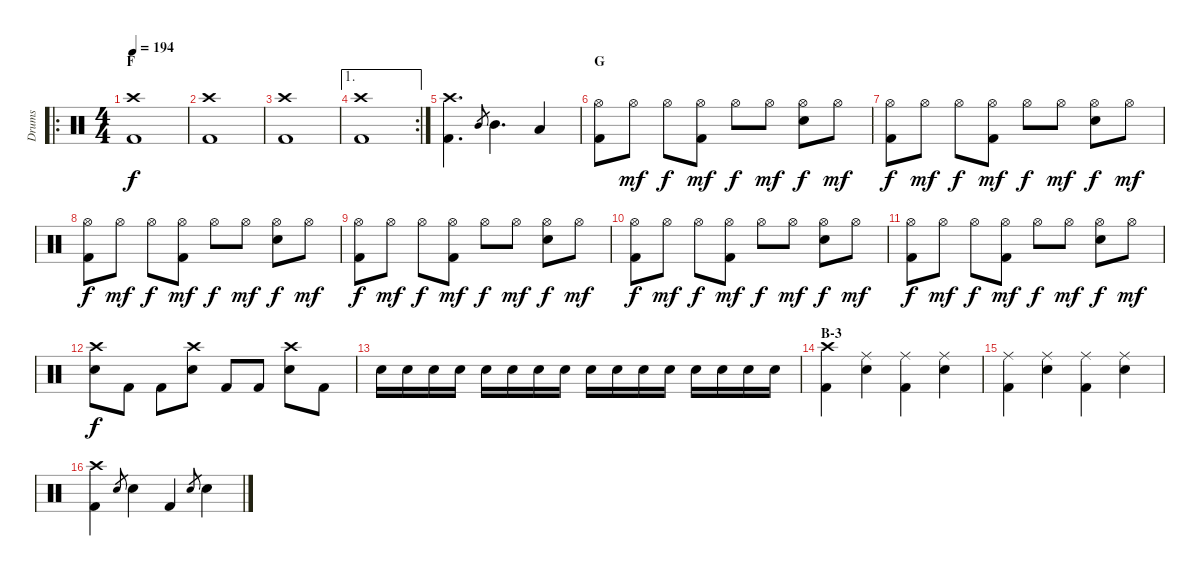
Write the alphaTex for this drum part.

\track ("Drums" "Drums") {instrument percussion}
\staff {score}
\articulation defaults
\ro
\ts (4 4)
\section ("" "F")
\tempo 194
\clef neutral
\ks c
("Crash high (hit)" "Kick (hit) 2").1{dy f} |
("Crash high (hit)" "Kick (hit) 2").1 |
("Crash high (hit)" "Kick (hit) 2").1 |
\ae 1
\rc 2
("Crash high (hit)" "Kick (hit) 2").1 |
("Crash high (hit)" "Kick (hit) 2").4{d} "Mid Tom (hit)".8{gr} "Mid Tom (hit)".4{d} "Low Tom (hit)".4 |
\section ("" "G")
("Hi-Hat (open)" "Kick (hit) 2").8 "Hi-Hat (open)".8{dy mf} "Hi-Hat (open)".8{dy f} ("Hi-Hat (open)" "Kick (hit) 2").8{dy mf} "Hi-Hat (open)".8{dy f} "Hi-Hat (open)".8{dy mf} ("Hi-Hat (open)" "Electric Snare (hit)").8{dy f} "Hi-Hat (open)".8{dy mf} |
("Hi-Hat (open)" "Kick (hit) 2").8{dy f} "Hi-Hat (open)".8{dy mf} "Hi-Hat (open)".8{dy f} ("Hi-Hat (open)" "Kick (hit) 2").8{dy mf} "Hi-Hat (open)".8{dy f} "Hi-Hat (open)".8{dy mf} ("Hi-Hat (open)" "Electric Snare (hit)").8{dy f} "Hi-Hat (open)".8{dy mf} |
("Hi-Hat (open)" "Kick (hit) 2").8{dy f} "Hi-Hat (open)".8{dy mf} "Hi-Hat (open)".8{dy f} ("Hi-Hat (open)" "Kick (hit) 2").8{dy mf} "Hi-Hat (open)".8{dy f} "Hi-Hat (open)".8{dy mf} ("Hi-Hat (open)" "Electric Snare (hit)").8{dy f} "Hi-Hat (open)".8{dy mf} |
("Hi-Hat (open)" "Kick (hit) 2").8{dy f} "Hi-Hat (open)".8{dy mf} "Hi-Hat (open)".8{dy f} ("Hi-Hat (open)" "Kick (hit) 2").8{dy mf} "Hi-Hat (open)".8{dy f} "Hi-Hat (open)".8{dy mf} ("Hi-Hat (open)" "Electric Snare (hit)").8{dy f} "Hi-Hat (open)".8{dy mf} |
("Hi-Hat (open)" "Kick (hit) 2").8{dy f} "Hi-Hat (open)".8{dy mf} "Hi-Hat (open)".8{dy f} ("Hi-Hat (open)" "Kick (hit) 2").8{dy mf} "Hi-Hat (open)".8{dy f} "Hi-Hat (open)".8{dy mf} ("Hi-Hat (open)" "Electric Snare (hit)").8{dy f} "Hi-Hat (open)".8{dy mf} |
("Hi-Hat (open)" "Kick (hit) 2").8{dy f} "Hi-Hat (open)".8{dy mf} "Hi-Hat (open)".8{dy f} ("Hi-Hat (open)" "Kick (hit) 2").8{dy mf} "Hi-Hat (open)".8{dy f} "Hi-Hat (open)".8{dy mf} ("Hi-Hat (open)" "Electric Snare (hit)").8{dy f} "Hi-Hat (open)".8{dy mf} |
("Crash high (hit)" "Electric Snare (hit)").8{dy f} "Kick (hit) 2".8 "Kick (hit) 2".8 ("Crash high (hit)" "Electric Snare (hit)").8 "Kick (hit) 2".8 "Kick (hit) 2".8 ("Crash high (hit)" "Electric Snare (hit)").8 "Kick (hit) 2".8 |
"Electric Snare (hit)".16 "Electric Snare (hit)".16 "Electric Snare (hit)".16 "Electric Snare (hit)".16 "Electric Snare (hit)".16 "Electric Snare (hit)".16 "Electric Snare (hit)".16 "Electric Snare (hit)".16 "Electric Snare (hit)".16 "Electric Snare (hit)".16 "Electric Snare (hit)".16 "Electric Snare (hit)".16 "Electric Snare (hit)".16 "Electric Snare (hit)".16 "Electric Snare (hit)".16 "Electric Snare (hit)".16 |
\section ("" "B-3")
("Crash high (hit)" "Kick (hit) 2").4 ("Ride (middle)" "Electric Snare (hit)").4 ("Ride (middle)" "Kick (hit) 2").4 ("Ride (middle)" "Electric Snare (hit)").4 |
("Ride (middle)" "Kick (hit) 2").4 ("Ride (middle)" "Electric Snare (hit)").4 ("Ride (middle)" "Kick (hit) 2").4 ("Ride (middle)" "Electric Snare (hit)").4 |
("Crash high (hit)" "Kick (hit) 2").4 "Electric Snare (hit)".8{gr} "Electric Snare (hit)".4 "Kick (hit) 2".4 "Electric Snare (hit)".8{gr} "Electric Snare (hit)".4
